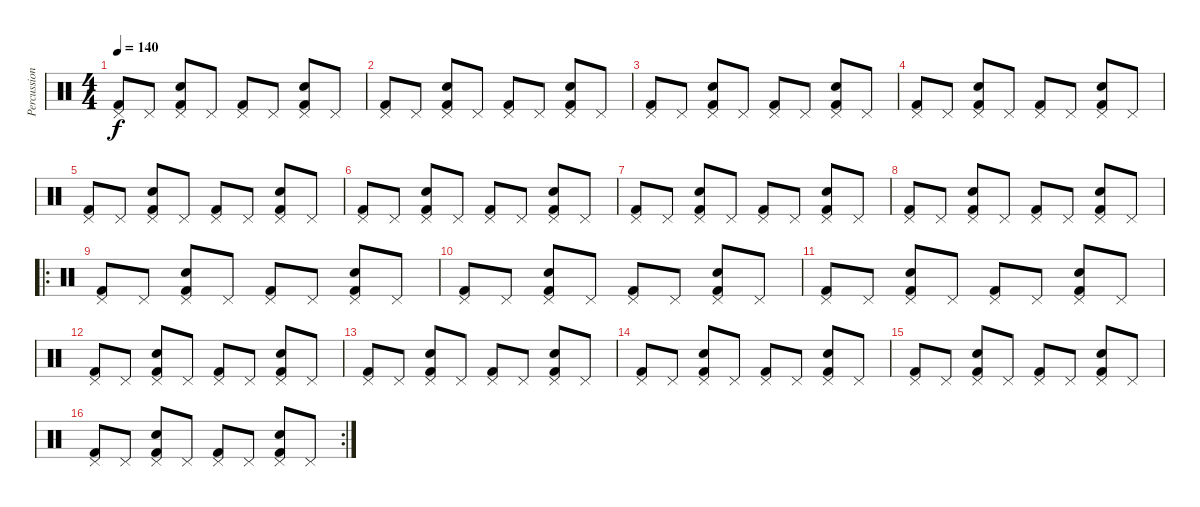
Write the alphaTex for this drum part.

\track ("Percussion" "Percussion") {instrument percussion}
\staff {score}
\articulation defaults
\ts (4 4)
\tempo 140
\clef neutral
\ks c
("Kick (hit) 2" "Pedal Hi-Hat (hit)").8{dy f} "Pedal Hi-Hat (hit)".8 ("Electric Snare (hit)" "Kick (hit) 2" "Pedal Hi-Hat (hit)").8 "Pedal Hi-Hat (hit)".8 ("Kick (hit) 2" "Pedal Hi-Hat (hit)").8 "Pedal Hi-Hat (hit)".8 ("Electric Snare (hit)" "Kick (hit) 2" "Pedal Hi-Hat (hit)").8 "Pedal Hi-Hat (hit)".8 |
("Kick (hit) 2" "Pedal Hi-Hat (hit)").8 "Pedal Hi-Hat (hit)".8 ("Electric Snare (hit)" "Kick (hit) 2" "Pedal Hi-Hat (hit)").8 "Pedal Hi-Hat (hit)".8 ("Kick (hit) 2" "Pedal Hi-Hat (hit)").8 "Pedal Hi-Hat (hit)".8 ("Electric Snare (hit)" "Kick (hit) 2" "Pedal Hi-Hat (hit)").8 "Pedal Hi-Hat (hit)".8 |
("Kick (hit) 2" "Pedal Hi-Hat (hit)").8 "Pedal Hi-Hat (hit)".8 ("Electric Snare (hit)" "Kick (hit) 2" "Pedal Hi-Hat (hit)").8 "Pedal Hi-Hat (hit)".8 ("Kick (hit) 2" "Pedal Hi-Hat (hit)").8 "Pedal Hi-Hat (hit)".8 ("Electric Snare (hit)" "Kick (hit) 2" "Pedal Hi-Hat (hit)").8 "Pedal Hi-Hat (hit)".8 |
("Kick (hit) 2" "Pedal Hi-Hat (hit)").8 "Pedal Hi-Hat (hit)".8 ("Electric Snare (hit)" "Kick (hit) 2" "Pedal Hi-Hat (hit)").8 "Pedal Hi-Hat (hit)".8 ("Kick (hit) 2" "Pedal Hi-Hat (hit)").8 "Pedal Hi-Hat (hit)".8 ("Electric Snare (hit)" "Kick (hit) 2" "Pedal Hi-Hat (hit)").8 "Pedal Hi-Hat (hit)".8 |
("Kick (hit) 2" "Pedal Hi-Hat (hit)").8 "Pedal Hi-Hat (hit)".8 ("Electric Snare (hit)" "Kick (hit) 2" "Pedal Hi-Hat (hit)").8 "Pedal Hi-Hat (hit)".8 ("Kick (hit) 2" "Pedal Hi-Hat (hit)").8 "Pedal Hi-Hat (hit)".8 ("Electric Snare (hit)" "Kick (hit) 2" "Pedal Hi-Hat (hit)").8 "Pedal Hi-Hat (hit)".8 |
("Kick (hit) 2" "Pedal Hi-Hat (hit)").8 "Pedal Hi-Hat (hit)".8 ("Electric Snare (hit)" "Kick (hit) 2" "Pedal Hi-Hat (hit)").8 "Pedal Hi-Hat (hit)".8 ("Kick (hit) 2" "Pedal Hi-Hat (hit)").8 "Pedal Hi-Hat (hit)".8 ("Electric Snare (hit)" "Kick (hit) 2" "Pedal Hi-Hat (hit)").8 "Pedal Hi-Hat (hit)".8 |
("Kick (hit) 2" "Pedal Hi-Hat (hit)").8 "Pedal Hi-Hat (hit)".8 ("Electric Snare (hit)" "Kick (hit) 2" "Pedal Hi-Hat (hit)").8 "Pedal Hi-Hat (hit)".8 ("Kick (hit) 2" "Pedal Hi-Hat (hit)").8 "Pedal Hi-Hat (hit)".8 ("Electric Snare (hit)" "Kick (hit) 2" "Pedal Hi-Hat (hit)").8 "Pedal Hi-Hat (hit)".8 |
("Kick (hit) 2" "Pedal Hi-Hat (hit)").8 "Pedal Hi-Hat (hit)".8 ("Electric Snare (hit)" "Kick (hit) 2" "Pedal Hi-Hat (hit)").8 "Pedal Hi-Hat (hit)".8 ("Kick (hit) 2" "Pedal Hi-Hat (hit)").8 "Pedal Hi-Hat (hit)".8 ("Electric Snare (hit)" "Kick (hit) 2" "Pedal Hi-Hat (hit)").8 "Pedal Hi-Hat (hit)".8 |
\ro
("Kick (hit) 2" "Pedal Hi-Hat (hit)").8 "Pedal Hi-Hat (hit)".8 ("Electric Snare (hit)" "Kick (hit) 2" "Pedal Hi-Hat (hit)").8 "Pedal Hi-Hat (hit)".8 ("Kick (hit) 2" "Pedal Hi-Hat (hit)").8 "Pedal Hi-Hat (hit)".8 ("Electric Snare (hit)" "Kick (hit) 2" "Pedal Hi-Hat (hit)").8 "Pedal Hi-Hat (hit)".8 |
("Kick (hit) 2" "Pedal Hi-Hat (hit)").8 "Pedal Hi-Hat (hit)".8 ("Electric Snare (hit)" "Kick (hit) 2" "Pedal Hi-Hat (hit)").8 "Pedal Hi-Hat (hit)".8 ("Kick (hit) 2" "Pedal Hi-Hat (hit)").8 "Pedal Hi-Hat (hit)".8 ("Electric Snare (hit)" "Kick (hit) 2" "Pedal Hi-Hat (hit)").8 "Pedal Hi-Hat (hit)".8 |
("Kick (hit) 2" "Pedal Hi-Hat (hit)").8 "Pedal Hi-Hat (hit)".8 ("Electric Snare (hit)" "Kick (hit) 2" "Pedal Hi-Hat (hit)").8 "Pedal Hi-Hat (hit)".8 ("Kick (hit) 2" "Pedal Hi-Hat (hit)").8 "Pedal Hi-Hat (hit)".8 ("Electric Snare (hit)" "Kick (hit) 2" "Pedal Hi-Hat (hit)").8 "Pedal Hi-Hat (hit)".8 |
("Kick (hit) 2" "Pedal Hi-Hat (hit)").8 "Pedal Hi-Hat (hit)".8 ("Electric Snare (hit)" "Kick (hit) 2" "Pedal Hi-Hat (hit)").8 "Pedal Hi-Hat (hit)".8 ("Kick (hit) 2" "Pedal Hi-Hat (hit)").8 "Pedal Hi-Hat (hit)".8 ("Electric Snare (hit)" "Kick (hit) 2" "Pedal Hi-Hat (hit)").8 "Pedal Hi-Hat (hit)".8 |
("Kick (hit) 2" "Pedal Hi-Hat (hit)").8 "Pedal Hi-Hat (hit)".8 ("Electric Snare (hit)" "Kick (hit) 2" "Pedal Hi-Hat (hit)").8 "Pedal Hi-Hat (hit)".8 ("Kick (hit) 2" "Pedal Hi-Hat (hit)").8 "Pedal Hi-Hat (hit)".8 ("Electric Snare (hit)" "Kick (hit) 2" "Pedal Hi-Hat (hit)").8 "Pedal Hi-Hat (hit)".8 |
("Kick (hit) 2" "Pedal Hi-Hat (hit)").8 "Pedal Hi-Hat (hit)".8 ("Electric Snare (hit)" "Kick (hit) 2" "Pedal Hi-Hat (hit)").8 "Pedal Hi-Hat (hit)".8 ("Kick (hit) 2" "Pedal Hi-Hat (hit)").8 "Pedal Hi-Hat (hit)".8 ("Electric Snare (hit)" "Kick (hit) 2" "Pedal Hi-Hat (hit)").8 "Pedal Hi-Hat (hit)".8 |
("Kick (hit) 2" "Pedal Hi-Hat (hit)").8 "Pedal Hi-Hat (hit)".8 ("Electric Snare (hit)" "Kick (hit) 2" "Pedal Hi-Hat (hit)").8 "Pedal Hi-Hat (hit)".8 ("Kick (hit) 2" "Pedal Hi-Hat (hit)").8 "Pedal Hi-Hat (hit)".8 ("Electric Snare (hit)" "Kick (hit) 2" "Pedal Hi-Hat (hit)").8 "Pedal Hi-Hat (hit)".8 |
\rc 2
("Kick (hit) 2" "Pedal Hi-Hat (hit)").8 "Pedal Hi-Hat (hit)".8 ("Electric Snare (hit)" "Kick (hit) 2" "Pedal Hi-Hat (hit)").8 "Pedal Hi-Hat (hit)".8 ("Kick (hit) 2" "Pedal Hi-Hat (hit)").8 "Pedal Hi-Hat (hit)".8 ("Electric Snare (hit)" "Kick (hit) 2" "Pedal Hi-Hat (hit)").8 "Pedal Hi-Hat (hit)".8
